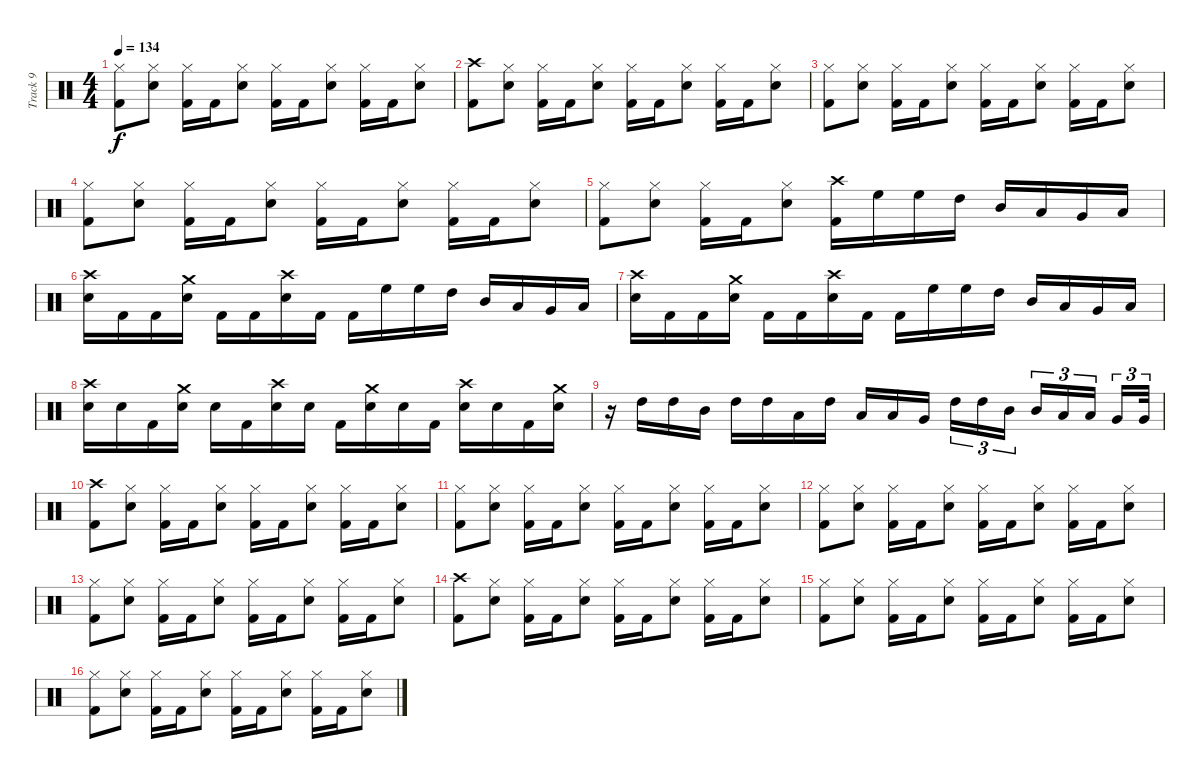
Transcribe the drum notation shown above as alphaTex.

\track ("Track 9" "Track 9") {instrument percussion}
\staff {score}
\articulation defaults
\ts (4 4)
\tempo 134
\clef neutral
\ks c
("Hi-Hat (closed)" "Kick (hit) 2").8{dy f} ("Hi-Hat (closed)" "Snare (hit) 2").8 ("Hi-Hat (closed)" "Kick (hit) 2").16 "Kick (hit) 2".16 ("Hi-Hat (closed)" "Snare (hit) 2").8 ("Hi-Hat (closed)" "Kick (hit) 2").16 "Kick (hit) 2".16 ("Hi-Hat (closed)" "Snare (hit) 2").8 ("Hi-Hat (closed)" "Kick (hit) 2").16 "Kick (hit) 2".16 ("Hi-Hat (closed)" "Snare (hit) 2").8 |
("Crash high (hit)" "Kick (hit) 2").8 ("Hi-Hat (closed)" "Snare (hit) 2").8 ("Hi-Hat (closed)" "Kick (hit) 2").16 "Kick (hit) 2".16 ("Hi-Hat (closed)" "Snare (hit) 2").8 ("Hi-Hat (closed)" "Kick (hit) 2").16 "Kick (hit) 2".16 ("Hi-Hat (closed)" "Snare (hit) 2").8 ("Hi-Hat (closed)" "Kick (hit) 2").16 "Kick (hit) 2".16 ("Hi-Hat (closed)" "Snare (hit) 2").8 |
("Hi-Hat (closed)" "Kick (hit) 2").8 ("Hi-Hat (closed)" "Snare (hit) 2").8 ("Hi-Hat (closed)" "Kick (hit) 2").16 "Kick (hit) 2".16 ("Hi-Hat (closed)" "Snare (hit) 2").8 ("Hi-Hat (closed)" "Kick (hit) 2").16 "Kick (hit) 2".16 ("Hi-Hat (closed)" "Snare (hit) 2").8 ("Hi-Hat (closed)" "Kick (hit) 2").16 "Kick (hit) 2".16 ("Hi-Hat (closed)" "Snare (hit) 2").8 |
("Hi-Hat (closed)" "Kick (hit) 2").8 ("Hi-Hat (closed)" "Snare (hit) 2").8 ("Hi-Hat (closed)" "Kick (hit) 2").16 "Kick (hit) 2".16 ("Hi-Hat (closed)" "Snare (hit) 2").8 ("Hi-Hat (closed)" "Kick (hit) 2").16 "Kick (hit) 2".16 ("Hi-Hat (closed)" "Snare (hit) 2").8 ("Hi-Hat (closed)" "Kick (hit) 2").16 "Kick (hit) 2".16 ("Hi-Hat (closed)" "Snare (hit) 2").8 |
("Hi-Hat (closed)" "Kick (hit) 2").8 ("Hi-Hat (closed)" "Snare (hit) 2").8 ("Hi-Hat (closed)" "Kick (hit) 2").16 "Kick (hit) 2".16 ("Hi-Hat (closed)" "Snare (hit) 2").8 ("Crash high (hit)" "Kick (hit) 2").16 "High Floor Tom (hit)".16 "High Floor Tom (hit)".16 "High Tom (hit)".16 "Mid Tom (hit)".16 "Low Tom (hit)".16 "Very Low Tom (hit)".16 "Low Floor Tom (hit)".16 |
("Crash high (hit)" "Snare (hit) 2").16 "Kick (hit) 2".16 "Kick (hit) 2".16 ("Crash medium (hit)" "Snare (hit) 2").16 "Kick (hit) 2".16 "Kick (hit) 2".16 ("Crash high (hit)" "Snare (hit) 2").16 "Kick (hit) 2".16 "Kick (hit) 2".16 "High Floor Tom (hit)".16 "High Floor Tom (hit)".16 "High Tom (hit)".16 "Mid Tom (hit)".16 "Low Tom (hit)".16 "Very Low Tom (hit)".16 "Low Floor Tom (hit)".16 |
("Crash high (hit)" "Snare (hit) 2").16 "Kick (hit) 2".16 "Kick (hit) 2".16 ("Crash medium (hit)" "Snare (hit) 2").16 "Kick (hit) 2".16 "Kick (hit) 2".16 ("Crash high (hit)" "Snare (hit) 2").16 "Kick (hit) 2".16 "Kick (hit) 2".16 "High Floor Tom (hit)".16 "High Floor Tom (hit)".16 "High Tom (hit)".16 "Mid Tom (hit)".16 "Low Tom (hit)".16 "Very Low Tom (hit)".16 "Low Floor Tom (hit)".16 |
("Crash high (hit)" "Snare (hit) 2").16 "Snare (hit) 2".16 "Kick (hit) 2".16 ("Crash medium (hit)" "Snare (hit) 2").16 "Snare (hit) 2".16 "Kick (hit) 2".16 ("Crash high (hit)" "Snare (hit) 2").16 "Snare (hit) 2".16 "Kick (hit) 2".16 ("Crash medium (hit)" "Snare (hit) 2").16 "Snare (hit) 2".16 "Kick (hit) 2".16 ("Crash high (hit)" "Snare (hit) 2").16 "Snare (hit) 2".16 "Kick (hit) 2".16 ("Crash medium (hit)" "Snare (hit) 2").16 |
r.16 "High Tom (hit)".16 "High Tom (hit)".16 "Mid Tom (hit)".16 "High Tom (hit)".16 "High Tom (hit)".16 "Low Tom (hit)".16 "High Tom (hit)".16 "Low Tom (hit)".16 "Low Tom (hit)".16 "Very Low Tom (hit)".16{beam splitsecondary} "High Tom (hit)".16{tu (3 2)} "High Tom (hit)".16{tu (3 2)} "Mid Tom (hit)".16{tu (3 2) beam splitsecondary} "Mid Tom (hit)".16{tu (3 2)} "Low Tom (hit)".16{tu (3 2)} "Low Tom (hit)".16{tu (3 2) beam splitsecondary} "Very Low Tom (hit)".16{tu (3 2)} "Very Low Tom (hit)".32{tu (3 2)} |
("Crash high (hit)" "Kick (hit) 2").8 ("Hi-Hat (closed)" "Snare (hit) 2").8 ("Hi-Hat (closed)" "Kick (hit) 2").16 "Kick (hit) 2".16 ("Hi-Hat (closed)" "Snare (hit) 2").8 ("Hi-Hat (closed)" "Kick (hit) 2").16 "Kick (hit) 2".16 ("Hi-Hat (closed)" "Snare (hit) 2").8 ("Hi-Hat (closed)" "Kick (hit) 2").16 "Kick (hit) 2".16 ("Hi-Hat (closed)" "Snare (hit) 2").8 |
("Hi-Hat (closed)" "Kick (hit) 2").8 ("Hi-Hat (closed)" "Snare (hit) 2").8 ("Hi-Hat (closed)" "Kick (hit) 2").16 "Kick (hit) 2".16 ("Hi-Hat (closed)" "Snare (hit) 2").8 ("Hi-Hat (closed)" "Kick (hit) 2").16 "Kick (hit) 2".16 ("Hi-Hat (closed)" "Snare (hit) 2").8 ("Hi-Hat (closed)" "Kick (hit) 2").16 "Kick (hit) 2".16 ("Hi-Hat (closed)" "Snare (hit) 2").8 |
("Hi-Hat (closed)" "Kick (hit) 2").8 ("Hi-Hat (closed)" "Snare (hit) 2").8 ("Hi-Hat (closed)" "Kick (hit) 2").16 "Kick (hit) 2".16 ("Hi-Hat (closed)" "Snare (hit) 2").8 ("Hi-Hat (closed)" "Kick (hit) 2").16 "Kick (hit) 2".16 ("Hi-Hat (closed)" "Snare (hit) 2").8 ("Hi-Hat (closed)" "Kick (hit) 2").16 "Kick (hit) 2".16 ("Hi-Hat (closed)" "Snare (hit) 2").8 |
("Hi-Hat (closed)" "Kick (hit) 2").8 ("Hi-Hat (closed)" "Snare (hit) 2").8 ("Hi-Hat (closed)" "Kick (hit) 2").16 "Kick (hit) 2".16 ("Hi-Hat (closed)" "Snare (hit) 2").8 ("Hi-Hat (closed)" "Kick (hit) 2").16 "Kick (hit) 2".16 ("Hi-Hat (closed)" "Snare (hit) 2").8 ("Hi-Hat (closed)" "Kick (hit) 2").16 "Kick (hit) 2".16 ("Hi-Hat (closed)" "Snare (hit) 2").8 |
("Crash high (hit)" "Kick (hit) 2").8 ("Hi-Hat (closed)" "Snare (hit) 2").8 ("Hi-Hat (closed)" "Kick (hit) 2").16 "Kick (hit) 2".16 ("Hi-Hat (closed)" "Snare (hit) 2").8 ("Hi-Hat (closed)" "Kick (hit) 2").16 "Kick (hit) 2".16 ("Hi-Hat (closed)" "Snare (hit) 2").8 ("Hi-Hat (closed)" "Kick (hit) 2").16 "Kick (hit) 2".16 ("Hi-Hat (closed)" "Snare (hit) 2").8 |
("Hi-Hat (closed)" "Kick (hit) 2").8 ("Hi-Hat (closed)" "Snare (hit) 2").8 ("Hi-Hat (closed)" "Kick (hit) 2").16 "Kick (hit) 2".16 ("Hi-Hat (closed)" "Snare (hit) 2").8 ("Hi-Hat (closed)" "Kick (hit) 2").16 "Kick (hit) 2".16 ("Hi-Hat (closed)" "Snare (hit) 2").8 ("Hi-Hat (closed)" "Kick (hit) 2").16 "Kick (hit) 2".16 ("Hi-Hat (closed)" "Snare (hit) 2").8 |
("Hi-Hat (closed)" "Kick (hit) 2").8 ("Hi-Hat (closed)" "Snare (hit) 2").8 ("Hi-Hat (closed)" "Kick (hit) 2").16 "Kick (hit) 2".16 ("Hi-Hat (closed)" "Snare (hit) 2").8 ("Hi-Hat (closed)" "Kick (hit) 2").16 "Kick (hit) 2".16 ("Hi-Hat (closed)" "Snare (hit) 2").8 ("Hi-Hat (closed)" "Kick (hit) 2").16 "Kick (hit) 2".16 ("Hi-Hat (closed)" "Snare (hit) 2").8
